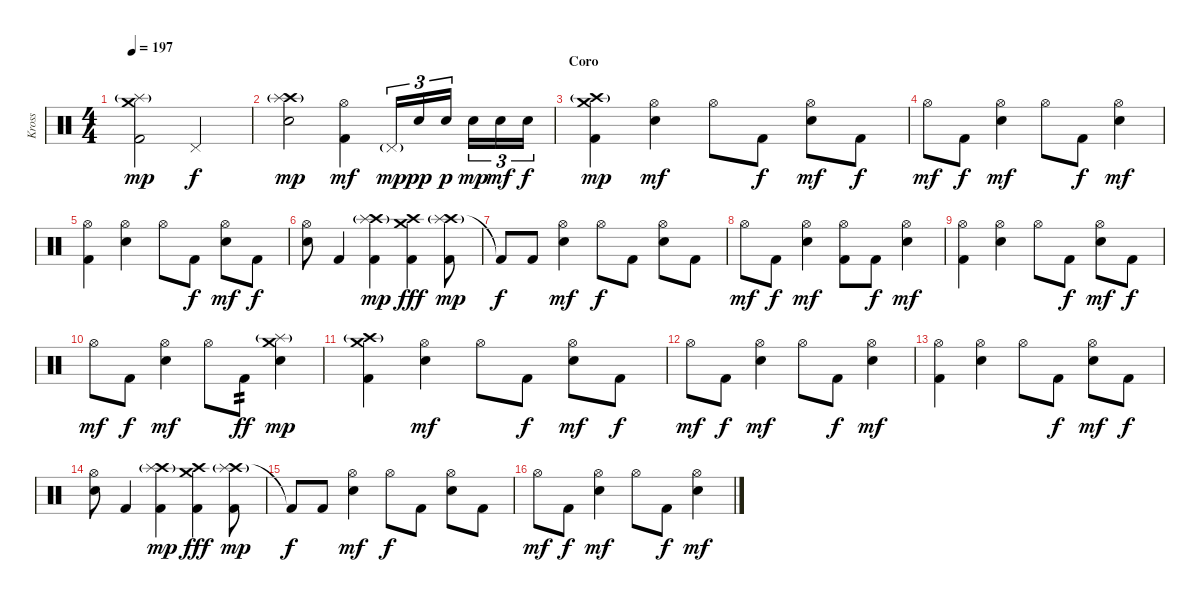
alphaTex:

\track ("Kross" "Kross") {instrument percussion}
\staff {score}
\articulation defaults
\ts (4 4)
\tempo 197
\clef neutral
\ks c
("Crash medium (hit)" "Splash (hit)"{g} "Kick (hit) 2").2{dy mp} "Pedal Hi-Hat (hit)".2{dy f} |
("Crash high (hit)" "Splash (hit)"{g} "Electric Snare (hit)").2{dy mp} ("Hi-Hat (open)" "Kick (hit) 2").4{dy mf} "Pedal Hi-Hat (hit)"{g}.16{tu (3 2) dy mp} "Electric Snare (hit)".16{tu (3 2) dy pp} "Electric Snare (hit)".16{tu (3 2) dy p} "Electric Snare (hit)".16{tu (3 2) dy mp} "Electric Snare (hit)".16{tu (3 2) dy mf} "Electric Snare (hit)".16{tu (3 2) dy f} |
\section ("" "Coro")
("Crash medium (hit)" "Crash high (hit)"{g} "Kick (hit) 2").4{dy mp} ("Hi-Hat (open)" "Electric Snare (hit)").4{dy mf} "Hi-Hat (open)".8 "Kick (hit) 2".8{dy f} ("Hi-Hat (open)" "Electric Snare (hit)").8{dy mf} "Kick (hit) 2".8{dy f} |
"Hi-Hat (open)".8{dy mf} "Kick (hit) 2".8{dy f} ("Hi-Hat (open)" "Electric Snare (hit)").4{dy mf} "Hi-Hat (open)".8 "Kick (hit) 2".8{dy f} ("Hi-Hat (open)" "Electric Snare (hit)").4{dy mf} |
("Hi-Hat (open)" "Kick (hit) 2").4 ("Hi-Hat (open)" "Electric Snare (hit)").4 "Hi-Hat (open)".8 "Kick (hit) 2".8{dy f} ("Hi-Hat (open)" "Electric Snare (hit)").8{dy mf} "Kick (hit) 2".8{dy f} |
("Hi-Hat (open)" "Electric Snare (hit)").8 "Kick (hit) 2".4 ("Crash high (hit)" "Splash (hit)"{g} "Kick (hit) 2").4{dy mp} ("Crash medium (hit)" "Crash high (hit)" "Kick (hit) 2").4{dy fff} ("Crash high (hit)" "Splash (hit)"{g} "Kick (hit) 2").8{dy mp} |
"Kick (hit) 2"{t}.8{dy f} "Kick (hit) 2".8 ("Hi-Hat (open)" "Electric Snare (hit)").4{dy mf} "Hi-Hat (open)".8{dy f} "Kick (hit) 2".8 ("Hi-Hat (open)" "Electric Snare (hit)").8 "Kick (hit) 2".8 |
"Hi-Hat (open)".8{dy mf} "Kick (hit) 2".8{dy f} ("Hi-Hat (open)" "Electric Snare (hit)").4{dy mf} ("Hi-Hat (open)" "Kick (hit) 2").8 "Kick (hit) 2".8{dy f} ("Hi-Hat (open)" "Electric Snare (hit)").4{dy mf} |
("Hi-Hat (open)" "Kick (hit) 2").4 ("Hi-Hat (open)" "Electric Snare (hit)").4 "Hi-Hat (open)".8 "Kick (hit) 2".8{dy f} ("Hi-Hat (open)" "Electric Snare (hit)").8{dy mf} "Kick (hit) 2".8{dy f} |
"Hi-Hat (open)".8{dy mf} "Kick (hit) 2".8{dy f} ("Hi-Hat (open)" "Electric Snare (hit)").4{dy mf} "Hi-Hat (open)".8 "Kick (hit) 2".8{tp 2 dy ff} ("Crash medium (hit)" "Splash (hit)"{g} "Electric Snare (hit)").4{dy mp} |
("Crash medium (hit)" "Crash high (hit)"{g} "Kick (hit) 2").4 ("Hi-Hat (open)" "Electric Snare (hit)").4{dy mf} "Hi-Hat (open)".8 "Kick (hit) 2".8{dy f} ("Hi-Hat (open)" "Electric Snare (hit)").8{dy mf} "Kick (hit) 2".8{dy f} |
"Hi-Hat (open)".8{dy mf} "Kick (hit) 2".8{dy f} ("Hi-Hat (open)" "Electric Snare (hit)").4{dy mf} "Hi-Hat (open)".8 "Kick (hit) 2".8{dy f} ("Hi-Hat (open)" "Electric Snare (hit)").4{dy mf} |
("Hi-Hat (open)" "Kick (hit) 2").4 ("Hi-Hat (open)" "Electric Snare (hit)").4 "Hi-Hat (open)".8 "Kick (hit) 2".8{dy f} ("Hi-Hat (open)" "Electric Snare (hit)").8{dy mf} "Kick (hit) 2".8{dy f} |
("Hi-Hat (open)" "Electric Snare (hit)").8 "Kick (hit) 2".4 ("Crash high (hit)" "Splash (hit)"{g} "Kick (hit) 2").4{dy mp} ("Crash medium (hit)" "Crash high (hit)" "Kick (hit) 2").4{dy fff} ("Crash high (hit)" "Splash (hit)"{g} "Kick (hit) 2").8{dy mp} |
"Kick (hit) 2"{t}.8{dy f} "Kick (hit) 2".8 ("Hi-Hat (open)" "Electric Snare (hit)").4{dy mf} "Hi-Hat (open)".8{dy f} "Kick (hit) 2".8 ("Hi-Hat (open)" "Electric Snare (hit)").8 "Kick (hit) 2".8 |
"Hi-Hat (open)".8{dy mf} "Kick (hit) 2".8{dy f} ("Hi-Hat (open)" "Electric Snare (hit)").4{dy mf} "Hi-Hat (open)".8 "Kick (hit) 2".8{dy f} ("Hi-Hat (open)" "Electric Snare (hit)").4{dy mf}
